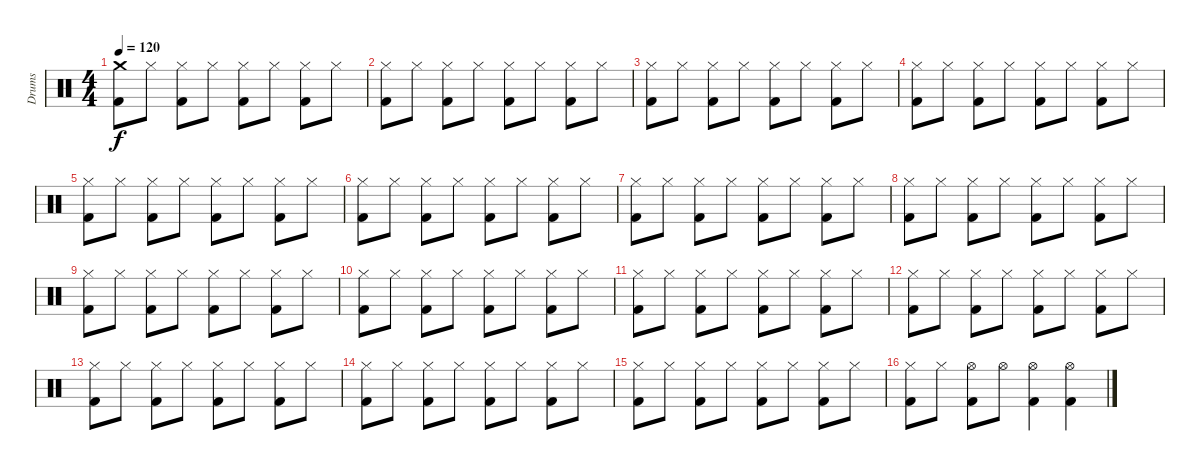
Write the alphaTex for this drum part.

\track ("Drums" "Drums") {instrument percussion}
\staff {score}
\articulation defaults
\ts (4 4)
\tempo 120
\clef neutral
\ks c
("Crash medium (hit)" "Kick (hit) 2").8{dy f} "Hi-Hat (closed)".8 ("Hi-Hat (closed)" "Kick (hit) 2").8 "Hi-Hat (closed)".8 ("Hi-Hat (closed)" "Kick (hit) 2").8 "Hi-Hat (closed)".8 ("Hi-Hat (closed)" "Kick (hit) 2").8 "Hi-Hat (closed)".8 |
("Hi-Hat (closed)" "Kick (hit) 2").8 "Hi-Hat (closed)".8 ("Hi-Hat (closed)" "Kick (hit) 2").8 "Hi-Hat (closed)".8 ("Hi-Hat (closed)" "Kick (hit) 2").8 "Hi-Hat (closed)".8 ("Hi-Hat (closed)" "Kick (hit) 2").8 "Hi-Hat (closed)".8 |
("Hi-Hat (closed)" "Kick (hit) 2").8 "Hi-Hat (closed)".8 ("Hi-Hat (closed)" "Kick (hit) 2").8 "Hi-Hat (closed)".8 ("Hi-Hat (closed)" "Kick (hit) 2").8 "Hi-Hat (closed)".8 ("Hi-Hat (closed)" "Kick (hit) 2").8 "Hi-Hat (closed)".8 |
("Hi-Hat (closed)" "Kick (hit) 2").8 "Hi-Hat (closed)".8 ("Hi-Hat (closed)" "Kick (hit) 2").8 "Hi-Hat (closed)".8 ("Hi-Hat (closed)" "Kick (hit) 2").8 "Hi-Hat (closed)".8 ("Hi-Hat (closed)" "Kick (hit) 2").8 "Hi-Hat (closed)".8 |
("Hi-Hat (closed)" "Kick (hit) 2").8 "Hi-Hat (closed)".8 ("Hi-Hat (closed)" "Kick (hit) 2").8 "Hi-Hat (closed)".8 ("Hi-Hat (closed)" "Kick (hit) 2").8 "Hi-Hat (closed)".8 ("Hi-Hat (closed)" "Kick (hit) 2").8 "Hi-Hat (closed)".8 |
("Hi-Hat (closed)" "Kick (hit) 2").8 "Hi-Hat (closed)".8 ("Hi-Hat (closed)" "Kick (hit) 2").8 "Hi-Hat (closed)".8 ("Hi-Hat (closed)" "Kick (hit) 2").8 "Hi-Hat (closed)".8 ("Hi-Hat (closed)" "Kick (hit) 2").8 "Hi-Hat (closed)".8 |
("Hi-Hat (closed)" "Kick (hit) 2").8 "Hi-Hat (closed)".8 ("Hi-Hat (closed)" "Kick (hit) 2").8 "Hi-Hat (closed)".8 ("Hi-Hat (closed)" "Kick (hit) 2").8 "Hi-Hat (closed)".8 ("Hi-Hat (closed)" "Kick (hit) 2").8 "Hi-Hat (closed)".8 |
("Hi-Hat (closed)" "Kick (hit) 2").8 "Hi-Hat (closed)".8 ("Hi-Hat (closed)" "Kick (hit) 2").8 "Hi-Hat (closed)".8 ("Hi-Hat (closed)" "Kick (hit) 2").8 "Hi-Hat (closed)".8 ("Hi-Hat (closed)" "Kick (hit) 2").8 "Hi-Hat (closed)".8 |
("Hi-Hat (closed)" "Kick (hit) 2").8 "Hi-Hat (closed)".8 ("Hi-Hat (closed)" "Kick (hit) 2").8 "Hi-Hat (closed)".8 ("Hi-Hat (closed)" "Kick (hit) 2").8 "Hi-Hat (closed)".8 ("Hi-Hat (closed)" "Kick (hit) 2").8 "Hi-Hat (closed)".8 |
("Hi-Hat (closed)" "Kick (hit) 2").8 "Hi-Hat (closed)".8 ("Hi-Hat (closed)" "Kick (hit) 2").8 "Hi-Hat (closed)".8 ("Hi-Hat (closed)" "Kick (hit) 2").8 "Hi-Hat (closed)".8 ("Hi-Hat (closed)" "Kick (hit) 2").8 "Hi-Hat (closed)".8 |
("Hi-Hat (closed)" "Kick (hit) 2").8 "Hi-Hat (closed)".8 ("Hi-Hat (closed)" "Kick (hit) 2").8 "Hi-Hat (closed)".8 ("Hi-Hat (closed)" "Kick (hit) 2").8 "Hi-Hat (closed)".8 ("Hi-Hat (closed)" "Kick (hit) 2").8 "Hi-Hat (closed)".8 |
("Hi-Hat (closed)" "Kick (hit) 2").8 "Hi-Hat (closed)".8 ("Hi-Hat (closed)" "Kick (hit) 2").8 "Hi-Hat (closed)".8 ("Hi-Hat (closed)" "Kick (hit) 2").8 "Hi-Hat (closed)".8 ("Hi-Hat (closed)" "Kick (hit) 2").8 "Hi-Hat (closed)".8 |
("Hi-Hat (closed)" "Kick (hit) 2").8 "Hi-Hat (closed)".8 ("Hi-Hat (closed)" "Kick (hit) 2").8 "Hi-Hat (closed)".8 ("Hi-Hat (closed)" "Kick (hit) 2").8 "Hi-Hat (closed)".8 ("Hi-Hat (closed)" "Kick (hit) 2").8 "Hi-Hat (closed)".8 |
("Hi-Hat (closed)" "Kick (hit) 2").8 "Hi-Hat (closed)".8 ("Hi-Hat (closed)" "Kick (hit) 2").8 "Hi-Hat (closed)".8 ("Hi-Hat (closed)" "Kick (hit) 2").8 "Hi-Hat (closed)".8 ("Hi-Hat (closed)" "Kick (hit) 2").8 "Hi-Hat (closed)".8 |
("Hi-Hat (closed)" "Kick (hit) 2").8 "Hi-Hat (closed)".8 ("Hi-Hat (closed)" "Kick (hit) 2").8 "Hi-Hat (closed)".8 ("Hi-Hat (closed)" "Kick (hit) 2").8 "Hi-Hat (closed)".8 ("Hi-Hat (closed)" "Kick (hit) 2").8 "Hi-Hat (closed)".8 |
("Hi-Hat (closed)" "Kick (hit) 2").8 "Hi-Hat (closed)".8 ("Hi-Hat (open)" "Kick (hit) 2").8 "Hi-Hat (open)".8 ("Hi-Hat (open)" "Kick (hit) 2").4 ("Hi-Hat (open)" "Kick (hit) 2").4
